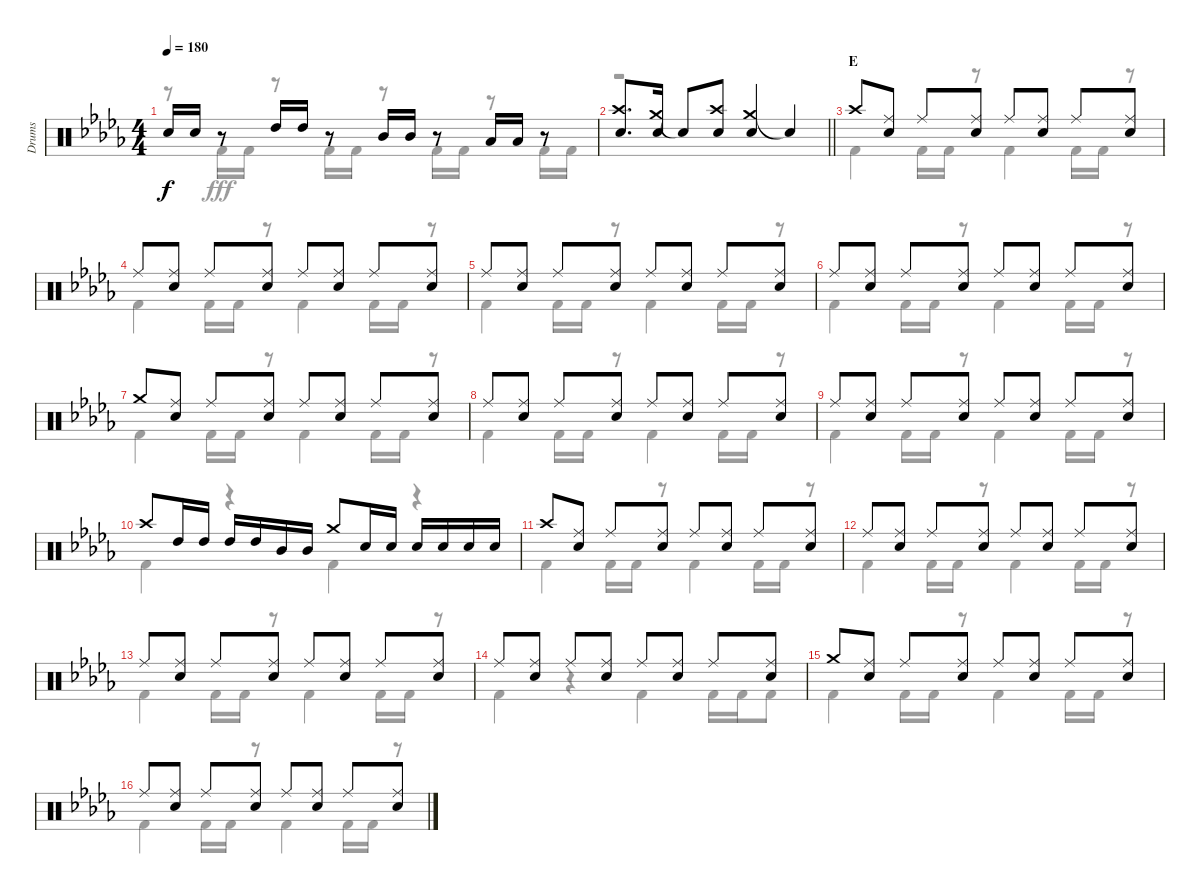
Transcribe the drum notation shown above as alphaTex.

\track ("Drums" "Drums") {instrument percussion}
\staff {score}
\articulation defaults
\voice
\ts (4 4)
\tempo 180
\clef neutral
\ks db "Snare (hit) 2".16{dy f} "Snare (hit) 2".16
r.8 "High Tom (hit)".16 "High Tom (hit)".16 r.8 "Mid Tom (hit)".16 "Mid Tom (hit)".16 r.8 "Low Tom (hit)".16 "Low Tom (hit)".16 r.8 |
\barLineRight lightlight
("Crash high (hit)" "Snare (hit) 2").8{d} ("Crash medium (hit)" "Snare (hit) 2").16 "Snare (hit)"{t}.8 ("Crash high (hit)" "Snare (hit) 2").8 ("Crash medium (hit)" "Snare (hit) 2").4 "Snare (hit)"{t}.4 |
\section ("" "E")
"Crash high (hit)".8 ("Ride (middle)" "Snare (hit) 2").8 "Ride (middle)".8 ("Ride (middle)" "Snare (hit) 2").8 "Ride (middle)".8 ("Ride (middle)" "Snare (hit) 2").8 "Ride (middle)".8 ("Ride (middle)" "Snare (hit) 2").8 |
"Ride (middle)".8 ("Ride (middle)" "Snare (hit) 2").8 "Ride (middle)".8 ("Ride (middle)" "Snare (hit) 2").8 "Ride (middle)".8 ("Ride (middle)" "Snare (hit) 2").8 "Ride (middle)".8 ("Ride (middle)" "Snare (hit) 2").8 |
"Ride (middle)".8 ("Ride (middle)" "Snare (hit) 2").8 "Ride (middle)".8 ("Ride (middle)" "Snare (hit) 2").8 "Ride (middle)".8 ("Ride (middle)" "Snare (hit) 2").8 "Ride (middle)".8 ("Ride (middle)" "Snare (hit) 2").8 |
"Ride (middle)".8 ("Ride (middle)" "Snare (hit) 2").8 "Ride (middle)".8 ("Ride (middle)" "Snare (hit) 2").8 "Ride (middle)".8 ("Ride (middle)" "Snare (hit) 2").8 "Ride (middle)".8 ("Ride (middle)" "Snare (hit) 2").8 |
"Crash medium (hit)".8 ("Ride (middle)" "Snare (hit) 2").8 "Ride (middle)".8 ("Ride (middle)" "Snare (hit) 2").8 "Ride (middle)".8 ("Ride (middle)" "Snare (hit) 2").8 "Ride (middle)".8 ("Ride (middle)" "Snare (hit) 2").8 |
"Ride (middle)".8 ("Ride (middle)" "Snare (hit) 2").8 "Ride (middle)".8 ("Ride (middle)" "Snare (hit) 2").8 "Ride (middle)".8 ("Ride (middle)" "Snare (hit) 2").8 "Ride (middle)".8 ("Ride (middle)" "Snare (hit) 2").8 |
"Ride (middle)".8 ("Ride (middle)" "Snare (hit) 2").8 "Ride (middle)".8 ("Ride (middle)" "Snare (hit) 2").8 "Ride (middle)".8 ("Ride (middle)" "Snare (hit) 2").8 "Ride (middle)".8 ("Ride (middle)" "Snare (hit) 2").8 |
"Crash high (hit)".8 "High Tom (hit)".16 "High Tom (hit)".16 "High Tom (hit)".16 "High Tom (hit)".16 "Mid Tom (hit)".16 "Mid Tom (hit)".16 "Crash medium (hit)".8 "Snare (hit) 2".16 "Snare (hit) 2".16 "Snare (hit) 2".16 "Snare (hit) 2".16 "Snare (hit) 2".16 "Snare (hit) 2".16 |
"Crash high (hit)".8 ("Ride (middle)" "Snare (hit) 2").8 "Ride (middle)".8 ("Ride (middle)" "Snare (hit) 2").8 "Ride (middle)".8 ("Ride (middle)" "Snare (hit) 2").8 "Ride (middle)".8 ("Ride (middle)" "Snare (hit) 2").8 |
"Ride (middle)".8 ("Ride (middle)" "Snare (hit) 2").8 "Ride (middle)".8 ("Ride (middle)" "Snare (hit) 2").8 "Ride (middle)".8 ("Ride (middle)" "Snare (hit) 2").8 "Ride (middle)".8 ("Ride (middle)" "Snare (hit) 2").8 |
"Ride (middle)".8 ("Ride (middle)" "Snare (hit) 2").8 "Ride (middle)".8 ("Ride (middle)" "Snare (hit) 2").8 "Ride (middle)".8 ("Ride (middle)" "Snare (hit) 2").8 "Ride (middle)".8 ("Ride (middle)" "Snare (hit) 2").8 |
"Ride (middle)".8 ("Ride (middle)" "Snare (hit) 2").8 "Ride (middle)".8 ("Ride (middle)" "Snare (hit) 2").8 "Ride (middle)".8 ("Ride (middle)" "Snare (hit) 2").8 "Ride (middle)".8 ("Ride (middle)" "Snare (hit) 2").8 |
"Crash medium (hit)".8 ("Ride (middle)" "Snare (hit) 2").8 "Ride (middle)".8 ("Ride (middle)" "Snare (hit) 2").8 "Ride (middle)".8 ("Ride (middle)" "Snare (hit) 2").8 "Ride (middle)".8 ("Ride (middle)" "Snare (hit) 2").8 |
"Ride (middle)".8 ("Ride (middle)" "Snare (hit) 2").8 "Ride (middle)".8 ("Ride (middle)" "Snare (hit) 2").8 "Ride (middle)".8 ("Ride (middle)" "Snare (hit) 2").8 "Ride (middle)".8 ("Ride (middle)" "Snare (hit) 2").8
\voice
\clef neutral
\ottava regular
\simile none
\ks db
r.8{dy fff} "Kick (hit) 2".16 "Kick (hit) 2".16 r.8 "Kick (hit) 2".16 "Kick (hit) 2".16 r.8 "Kick (hit) 2".16 "Kick (hit) 2".16 r.8 "Kick (hit) 2".16 "Kick (hit) 2".16 |
\barLineRight lightlight
r.1 |
"Kick (hit) 2".4 "Kick (hit) 2".16 "Kick (hit) 2".16 r.8 "Kick (hit) 2".4 "Kick (hit) 2".16 "Kick (hit) 2".16 r.8 |
"Kick (hit) 2".4 "Kick (hit) 2".16 "Kick (hit) 2".16 r.8 "Kick (hit) 2".4 "Kick (hit) 2".16 "Kick (hit) 2".16 r.8 |
"Kick (hit) 2".4 "Kick (hit) 2".16 "Kick (hit) 2".16 r.8 "Kick (hit) 2".4 "Kick (hit) 2".16 "Kick (hit) 2".16 r.8 |
"Kick (hit) 2".4 "Kick (hit) 2".16 "Kick (hit) 2".16 r.8 "Kick (hit) 2".4 "Kick (hit) 2".16 "Kick (hit) 2".16 r.8 |
"Kick (hit) 2".4 "Kick (hit) 2".16 "Kick (hit) 2".16 r.8 "Kick (hit) 2".4 "Kick (hit) 2".16 "Kick (hit) 2".16 r.8 |
"Kick (hit) 2".4 "Kick (hit) 2".16 "Kick (hit) 2".16 r.8 "Kick (hit) 2".4 "Kick (hit) 2".16 "Kick (hit) 2".16 r.8 |
"Kick (hit) 2".4 "Kick (hit) 2".16 "Kick (hit) 2".16 r.8 "Kick (hit) 2".4 "Kick (hit) 2".16 "Kick (hit) 2".16 r.8 |
"Kick (hit) 2".4 r.4 "Kick (hit) 2".4 r.4 |
"Kick (hit) 2".4 "Kick (hit) 2".16 "Kick (hit) 2".16 r.8 "Kick (hit) 2".4 "Kick (hit) 2".16 "Kick (hit) 2".16 r.8 |
"Kick (hit) 2".4 "Kick (hit) 2".16 "Kick (hit) 2".16 r.8 "Kick (hit) 2".4 "Kick (hit) 2".16 "Kick (hit) 2".16 r.8 |
"Kick (hit) 2".4 "Kick (hit) 2".16 "Kick (hit) 2".16 r.8 "Kick (hit) 2".4 "Kick (hit) 2".16 "Kick (hit) 2".16 r.8 |
"Kick (hit) 2".4 r.4 "Kick (hit) 2".4 "Kick (hit) 2".16 "Kick (hit) 2".16 "Kick (hit) 2".8 |
"Kick (hit) 2".4 "Kick (hit) 2".16 "Kick (hit) 2".16 r.8 "Kick (hit) 2".4 "Kick (hit) 2".16 "Kick (hit) 2".16 r.8 |
"Kick (hit) 2".4 "Kick (hit) 2".16 "Kick (hit) 2".16 r.8 "Kick (hit) 2".4 "Kick (hit) 2".16 "Kick (hit) 2".16 r.8
